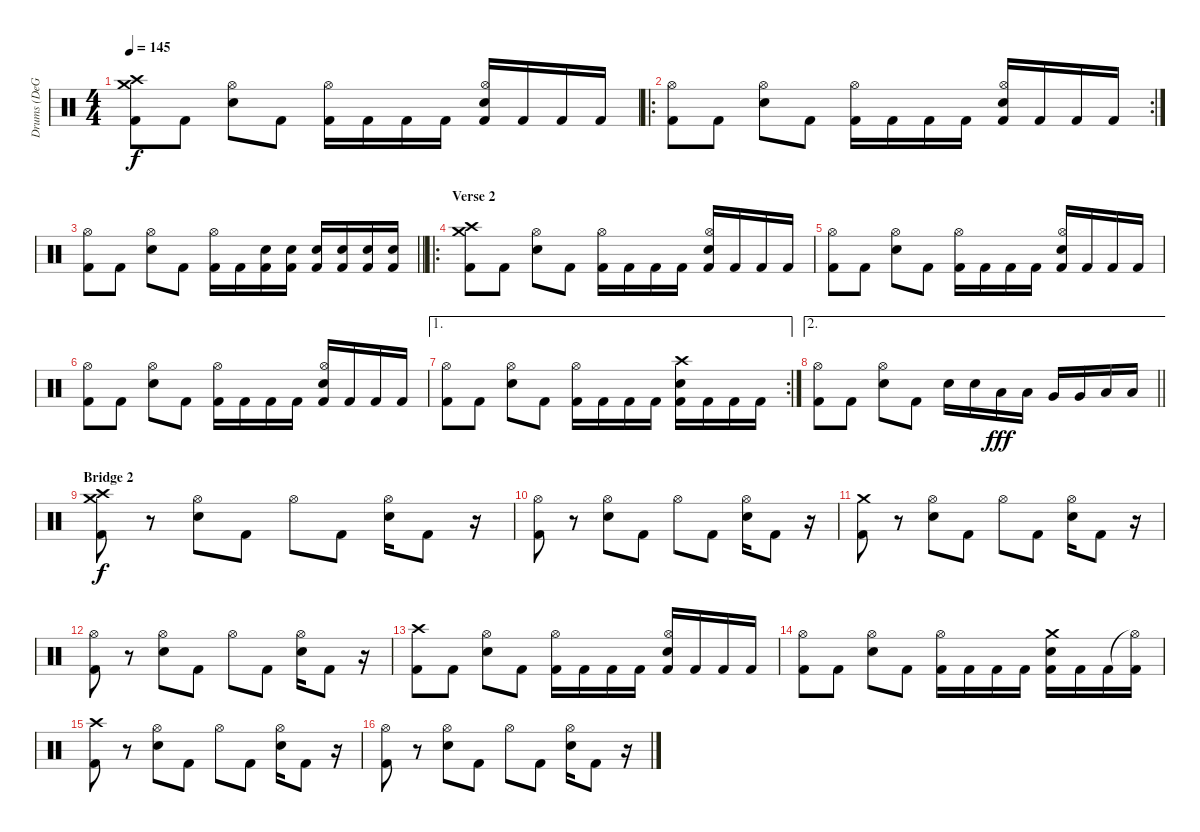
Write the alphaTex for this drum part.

\track ("Drums (DeGrasso)" "Drums (DeG") {instrument percussion}
\staff {score}
\articulation defaults
\ts (4 4)
\tempo 145
\clef neutral
\ks c
("Crash medium (hit)" "Crash high (hit)" "Kick (hit) 2").8{dy f} "Kick (hit) 2".8 ("Hi-Hat (open)" "Snare (hit) 2").8 "Kick (hit) 2".8 ("Hi-Hat (open)" "Kick (hit) 2").16 "Kick (hit) 2".16 "Kick (hit) 2".16 "Kick (hit) 2".16 ("Hi-Hat (open)" "Snare (hit) 2" "Kick (hit) 2").16 "Kick (hit) 2".16 "Kick (hit) 2".16 "Kick (hit) 2".16 |
\ro
\rc 2
("Hi-Hat (open)" "Kick (hit) 2").8 "Kick (hit) 2".8 ("Hi-Hat (open)" "Snare (hit) 2").8 "Kick (hit) 2".8 ("Hi-Hat (open)" "Kick (hit) 2").16 "Kick (hit) 2".16 "Kick (hit) 2".16 "Kick (hit) 2".16 ("Hi-Hat (open)" "Snare (hit) 2" "Kick (hit) 2").16 "Kick (hit) 2".16 "Kick (hit) 2".16 "Kick (hit) 2".16 |
\barLineRight lightlight
("Hi-Hat (open)" "Kick (hit) 2").8 "Kick (hit) 2".8 ("Hi-Hat (open)" "Snare (hit) 2").8 "Kick (hit) 2".8 ("Hi-Hat (open)" "Kick (hit) 2").16 "Kick (hit) 2".16 ("Snare (hit) 2" "Kick (hit) 2").16 ("Snare (hit) 2" "Kick (hit) 2").16 ("Snare (hit) 2" "Kick (hit) 2").16 ("Snare (hit) 2" "Kick (hit) 2").16 ("Snare (hit) 2" "Kick (hit) 2").16 ("Snare (hit) 2" "Kick (hit) 2").16 |
\ro
\section ("" "Verse 2")
("Crash medium (hit)" "Crash high (hit)" "Kick (hit) 2").8 "Kick (hit) 2".8 ("Hi-Hat (open)" "Snare (hit) 2").8 "Kick (hit) 2".8 ("Hi-Hat (open)" "Kick (hit) 2").16 "Kick (hit) 2".16 "Kick (hit) 2".16 "Kick (hit) 2".16 ("Hi-Hat (open)" "Snare (hit) 2" "Kick (hit) 2").16 "Kick (hit) 2".16 "Kick (hit) 2".16 "Kick (hit) 2".16 |
("Hi-Hat (open)" "Kick (hit) 2").8 "Kick (hit) 2".8 ("Hi-Hat (open)" "Snare (hit) 2").8 "Kick (hit) 2".8 ("Hi-Hat (open)" "Kick (hit) 2").16 "Kick (hit) 2".16 "Kick (hit) 2".16 "Kick (hit) 2".16 ("Hi-Hat (open)" "Snare (hit) 2" "Kick (hit) 2").16 "Kick (hit) 2".16 "Kick (hit) 2".16 "Kick (hit) 2".16 |
("Hi-Hat (open)" "Kick (hit) 2").8 "Kick (hit) 2".8 ("Hi-Hat (open)" "Snare (hit) 2").8 "Kick (hit) 2".8 ("Hi-Hat (open)" "Kick (hit) 2").16 "Kick (hit) 2".16 "Kick (hit) 2".16 "Kick (hit) 2".16 ("Hi-Hat (open)" "Snare (hit) 2" "Kick (hit) 2").16 "Kick (hit) 2".16 "Kick (hit) 2".16 "Kick (hit) 2".16 |
\ae 1
\rc 2
("Hi-Hat (open)" "Kick (hit) 2").8 "Kick (hit) 2".8 ("Hi-Hat (open)" "Snare (hit) 2").8 "Kick (hit) 2".8 ("Hi-Hat (open)" "Kick (hit) 2").16 "Kick (hit) 2".16 "Kick (hit) 2".16 "Kick (hit) 2".16 ("Crash high (hit)" "Snare (hit) 2" "Kick (hit) 2").16 "Kick (hit) 2".16 "Kick (hit) 2".16 "Kick (hit) 2".16 |
\ae 2
\barLineRight lightlight
("Hi-Hat (open)" "Kick (hit) 2").8 "Kick (hit) 2".8 ("Hi-Hat (open)" "Snare (hit) 2").8 "Kick (hit) 2".8 "Snare (hit) 2".16 "Snare (hit) 2".16 "Low Tom (hit)".16{dy fff} "Low Tom (hit)".16 "Very Low Tom (hit)".16 "Very Low Tom (hit)".16 "Low Floor Tom (hit)".16 "Low Floor Tom (hit)".16 |
\section ("" "Bridge 2")
("Crash high (hit)" "Crash medium (hit)" "Kick (hit) 2").8{dy f} r.8 ("Hi-Hat (open)" "Snare (hit) 2").8 "Kick (hit) 2".8 "Hi-Hat (open)".8 "Kick (hit) 2".8 ("Hi-Hat (open)" "Snare (hit) 2").16 "Kick (hit) 2".8 r.16 |
("Hi-Hat (open)" "Kick (hit) 2").8 r.8 ("Hi-Hat (open)" "Snare (hit) 2").8 "Kick (hit) 2".8 "Hi-Hat (open)".8 "Kick (hit) 2".8 ("Hi-Hat (open)" "Snare (hit) 2").16 "Kick (hit) 2".8 r.16 |
("Crash medium (hit)" "Kick (hit) 2").8 r.8 ("Hi-Hat (open)" "Snare (hit) 2").8 "Kick (hit) 2".8 "Hi-Hat (open)".8 "Kick (hit) 2".8 ("Hi-Hat (open)" "Snare (hit) 2").16 "Kick (hit) 2".8 r.16 |
("Hi-Hat (open)" "Kick (hit) 2").8 r.8 ("Hi-Hat (open)" "Snare (hit) 2").8 "Kick (hit) 2".8 "Hi-Hat (open)".8 "Kick (hit) 2".8 ("Hi-Hat (open)" "Snare (hit) 2").16 "Kick (hit) 2".8 r.16 |
("Crash high (hit)" "Kick (hit) 2").8 "Kick (hit) 2".8 ("Hi-Hat (open)" "Snare (hit) 2").8 "Kick (hit) 2".8 ("Hi-Hat (open)" "Kick (hit) 2").16 "Kick (hit) 2".16 "Kick (hit) 2".16 "Kick (hit) 2".16 ("Hi-Hat (open)" "Snare (hit) 2" "Kick (hit) 2").16 "Kick (hit) 2".16 "Kick (hit) 2".16 "Kick (hit) 2".16 |
("Hi-Hat (open)" "Kick (hit) 2").8 "Kick (hit) 2".8 ("Hi-Hat (open)" "Snare (hit) 2").8 "Kick (hit) 2".8 ("Hi-Hat (open)" "Kick (hit) 2").16 "Kick (hit) 2".16 "Kick (hit) 2".16 "Kick (hit) 2".16 ("Crash medium (hit)" "Snare (hit) 2" "Kick (hit) 2").16 "Kick (hit) 2".16 "Kick (hit) 2".16 ("Hi-Hat (open)"{t} "Kick (hit) 2").16 |
("Crash high (hit)" "Kick (hit) 2").8 r.8 ("Hi-Hat (open)" "Snare (hit) 2").8 "Kick (hit) 2".8 "Hi-Hat (open)".8 "Kick (hit) 2".8 ("Hi-Hat (open)" "Snare (hit) 2").16 "Kick (hit) 2".8 r.16 |
("Hi-Hat (open)" "Kick (hit) 2").8 r.8 ("Hi-Hat (open)" "Snare (hit) 2").8 "Kick (hit) 2".8 "Hi-Hat (open)".8 "Kick (hit) 2".8 ("Hi-Hat (open)" "Snare (hit) 2").16 "Kick (hit) 2".8 r.16
